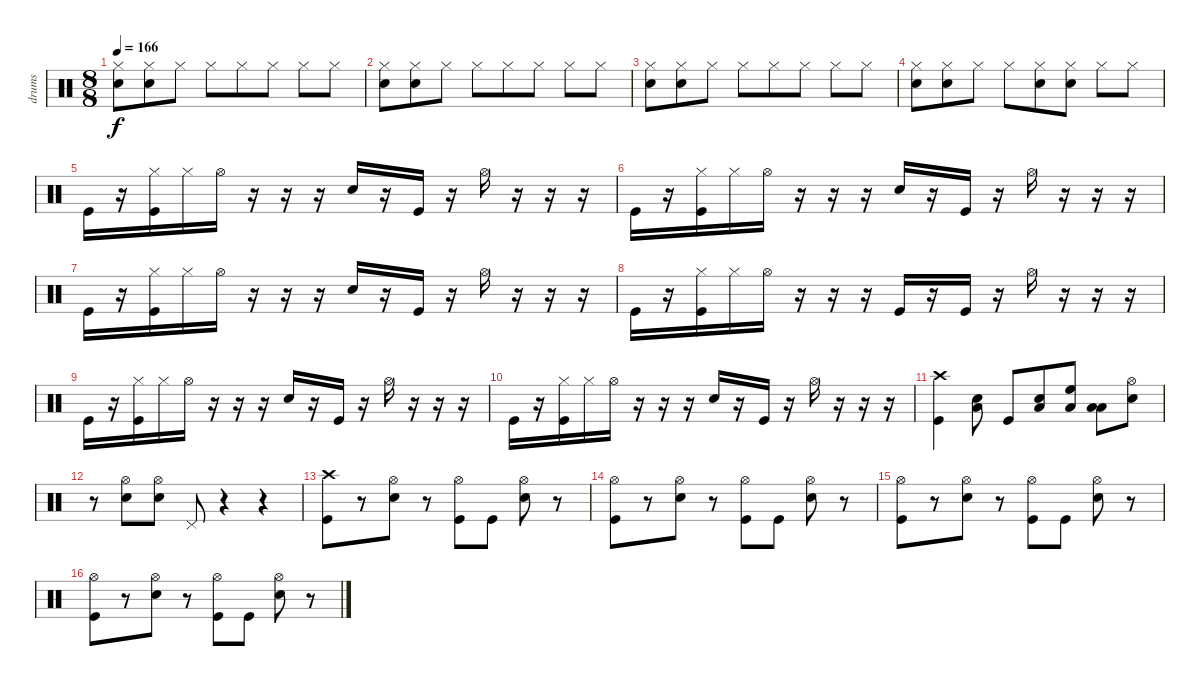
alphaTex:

\track ("drums" "drums") {instrument percussion}
\staff {score}
\articulation defaults
\ts (8 8)
\tempo 166
\clef neutral
\ks c
("Hi-Hat (closed)" "Snare (hit) 2").8{dy f} ("Hi-Hat (closed)" "Snare (hit) 2").8 "Hi-Hat (closed)".8 "Hi-Hat (closed)".8 "Hi-Hat (closed)".8 "Hi-Hat (closed)".8 "Hi-Hat (closed)".8 "Hi-Hat (closed)".8 |
("Hi-Hat (closed)" "Snare (hit) 2").8 ("Hi-Hat (closed)" "Snare (hit) 2").8 "Hi-Hat (closed)".8 "Hi-Hat (closed)".8 "Hi-Hat (closed)".8 "Hi-Hat (closed)".8 "Hi-Hat (closed)".8 "Hi-Hat (closed)".8 |
("Hi-Hat (closed)" "Snare (hit) 2").8 ("Hi-Hat (closed)" "Snare (hit) 2").8 "Hi-Hat (closed)".8 "Hi-Hat (closed)".8 "Hi-Hat (closed)".8 "Hi-Hat (closed)".8 "Hi-Hat (closed)".8 "Hi-Hat (closed)".8 |
("Hi-Hat (closed)" "Snare (hit) 2").8 ("Hi-Hat (closed)" "Snare (hit) 2").8 "Hi-Hat (closed)".8 "Hi-Hat (closed)".8 ("Hi-Hat (closed)" "Snare (hit) 2").8 ("Hi-Hat (closed)" "Snare (hit) 2").8 "Hi-Hat (closed)".8 "Hi-Hat (closed)".8 |
"Kick (hit)".16 r.16 ("Hi-Hat (closed)" "Kick (hit)").16 "Hi-Hat (closed)".16 "Hi-Hat (open)".16 r.16 r.16 r.16 "Snare (hit) 2".16 r.16 "Kick (hit)".16 r.16 "Hi-Hat (open)".16 r.16 r.16 r.16 |
"Kick (hit)".16 r.16 ("Hi-Hat (closed)" "Kick (hit)").16 "Hi-Hat (closed)".16 "Hi-Hat (open)".16 r.16 r.16 r.16 "Snare (hit) 2".16 r.16 "Kick (hit)".16 r.16 "Hi-Hat (open)".16 r.16 r.16 r.16 |
"Kick (hit)".16 r.16 ("Hi-Hat (closed)" "Kick (hit)").16 "Hi-Hat (closed)".16 "Hi-Hat (open)".16 r.16 r.16 r.16 "Snare (hit) 2".16 r.16 "Kick (hit)".16 r.16 "Hi-Hat (open)".16 r.16 r.16 r.16 |
"Kick (hit)".16 r.16 ("Hi-Hat (closed)" "Kick (hit)").16 "Hi-Hat (closed)".16 "Hi-Hat (open)".16 r.16 r.16 r.16 "Kick (hit)".16 r.16 "Kick (hit)".16 r.16 "Hi-Hat (open)".16 r.16 r.16 r.16 |
"Kick (hit)".16 r.16 ("Hi-Hat (closed)" "Kick (hit)").16 "Hi-Hat (closed)".16 "Hi-Hat (open)".16 r.16 r.16 r.16 "Snare (hit) 2".16 r.16 "Kick (hit)".16 r.16 "Hi-Hat (open)".16 r.16 r.16 r.16 |
"Kick (hit)".16 r.16 ("Hi-Hat (closed)" "Kick (hit)").16 "Hi-Hat (closed)".16 "Hi-Hat (open)".16 r.16 r.16 r.16 "Snare (hit) 2".16 r.16 "Kick (hit)".16 r.16 "Hi-Hat (open)".16 r.16 r.16 r.16 |
("Crash high (hit)" "Kick (hit)").4 ("Snare (hit) 2" "Low Tom (hit)").8 "Kick (hit)".8 ("Snare (hit) 2" "Low Tom (hit)").8 ("High Floor Tom (hit)" "Low Tom (hit)").8 ("Low Tom (hit)" "Low Floor Tom (hit)").8 ("Hi-Hat (open)" "Snare (hit) 2").8 |
r.8 ("Hi-Hat (open)" "Snare (hit) 2").8 ("Hi-Hat (open)" "Snare (hit) 2").8 "Pedal Hi-Hat (hit)".8 r.4 r.4 |
("Crash high (hit)" "Kick (hit)").8 r.8 ("Hi-Hat (open)" "Snare (hit) 2").8 r.8 ("Hi-Hat (open)" "Kick (hit)").8 "Kick (hit)".8 ("Hi-Hat (open)" "Snare (hit) 2").8 r.8 |
("Hi-Hat (open)" "Kick (hit)").8 r.8 ("Hi-Hat (open)" "Snare (hit) 2").8 r.8 ("Hi-Hat (open)" "Kick (hit)").8 "Kick (hit)".8 ("Hi-Hat (open)" "Snare (hit) 2").8 r.8 |
("Hi-Hat (open)" "Kick (hit)").8 r.8 ("Hi-Hat (open)" "Snare (hit) 2").8 r.8 ("Hi-Hat (open)" "Kick (hit)").8 "Kick (hit)".8 ("Hi-Hat (open)" "Snare (hit) 2").8 r.8 |
("Hi-Hat (open)" "Kick (hit)").8 r.8 ("Hi-Hat (open)" "Snare (hit) 2").8 r.8 ("Hi-Hat (open)" "Kick (hit)").8 "Kick (hit)".8 ("Hi-Hat (open)" "Snare (hit) 2").8 r.8
